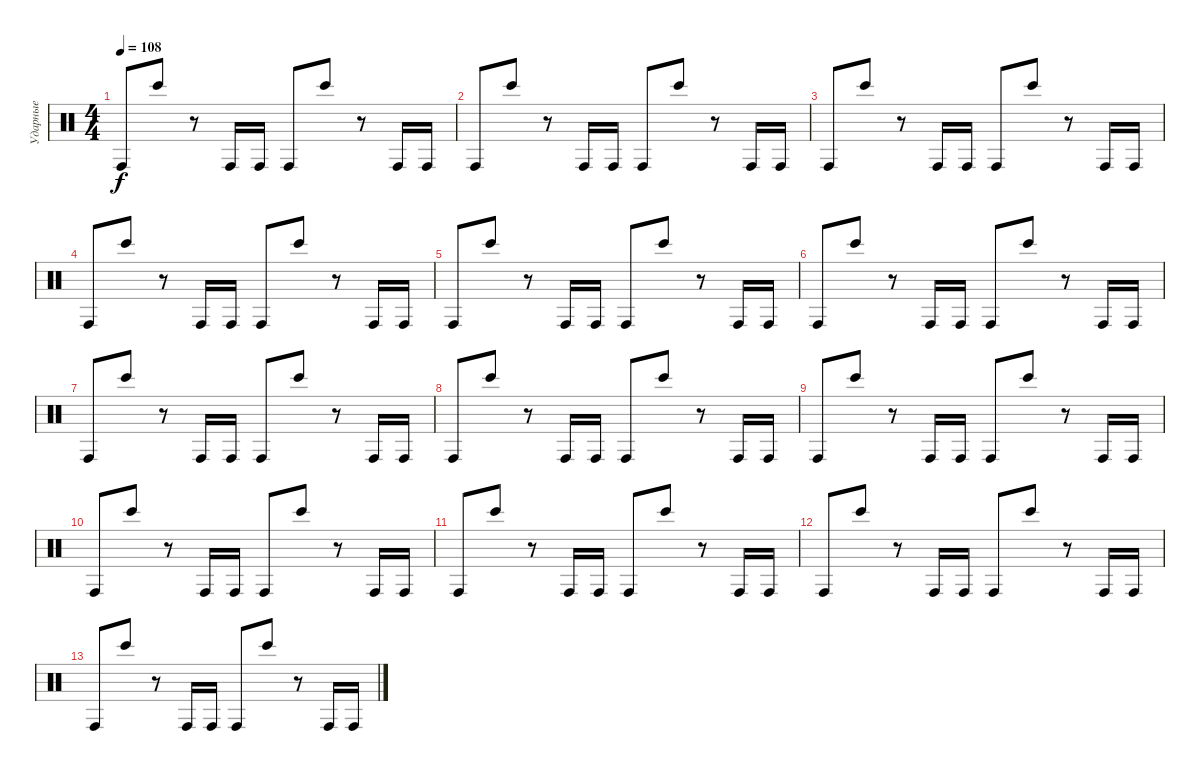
\track ("Ударные" "Ударные") {instrument percussion}
\staff {score}
\articulation defaults
\ts (4 4)
\tempo 108
\clef neutral
\ks c "Conga high (hit)".8{dy f} "Bongo High (hit)".8
r.8 "Conga high (hit)".16 "Conga high (hit)".16 "Conga high (hit)".8 "Bongo High (hit)".8 r.8 "Conga high (hit)".16 "Conga high (hit)".16 |
"Conga high (hit)".8 "Bongo High (hit)".8 r.8 "Conga high (hit)".16 "Conga high (hit)".16 "Conga high (hit)".8 "Bongo High (hit)".8 r.8 "Conga high (hit)".16 "Conga high (hit)".16 |
"Conga high (hit)".8 "Bongo High (hit)".8 r.8 "Conga high (hit)".16 "Conga high (hit)".16 "Conga high (hit)".8 "Bongo High (hit)".8 r.8 "Conga high (hit)".16 "Conga high (hit)".16 |
"Conga high (hit)".8 "Bongo High (hit)".8 r.8 "Conga high (hit)".16 "Conga high (hit)".16 "Conga high (hit)".8 "Bongo High (hit)".8 r.8 "Conga high (hit)".16 "Conga high (hit)".16 |
"Conga high (hit)".8 "Bongo High (hit)".8 r.8 "Conga high (hit)".16 "Conga high (hit)".16 "Conga high (hit)".8 "Bongo High (hit)".8 r.8 "Conga high (hit)".16 "Conga high (hit)".16 |
"Conga high (hit)".8 "Bongo High (hit)".8 r.8 "Conga high (hit)".16 "Conga high (hit)".16 "Conga high (hit)".8 "Bongo High (hit)".8 r.8 "Conga high (hit)".16 "Conga high (hit)".16 |
"Conga high (hit)".8 "Bongo High (hit)".8 r.8 "Conga high (hit)".16 "Conga high (hit)".16 "Conga high (hit)".8 "Bongo High (hit)".8 r.8 "Conga high (hit)".16 "Conga high (hit)".16 |
"Conga high (hit)".8 "Bongo High (hit)".8 r.8 "Conga high (hit)".16 "Conga high (hit)".16 "Conga high (hit)".8 "Bongo High (hit)".8 r.8 "Conga high (hit)".16 "Conga high (hit)".16 |
"Conga high (hit)".8 "Bongo High (hit)".8 r.8 "Conga high (hit)".16 "Conga high (hit)".16 "Conga high (hit)".8 "Bongo High (hit)".8 r.8 "Conga high (hit)".16 "Conga high (hit)".16 |
"Conga high (hit)".8 "Bongo High (hit)".8 r.8 "Conga high (hit)".16 "Conga high (hit)".16 "Conga high (hit)".8 "Bongo High (hit)".8 r.8 "Conga high (hit)".16 "Conga high (hit)".16 |
"Conga high (hit)".8 "Bongo High (hit)".8 r.8 "Conga high (hit)".16 "Conga high (hit)".16 "Conga high (hit)".8 "Bongo High (hit)".8 r.8 "Conga high (hit)".16 "Conga high (hit)".16 |
"Conga high (hit)".8 "Bongo High (hit)".8 r.8 "Conga high (hit)".16 "Conga high (hit)".16 "Conga high (hit)".8 "Bongo High (hit)".8 r.8 "Conga high (hit)".16 "Conga high (hit)".16 |
"Conga high (hit)".8 "Bongo High (hit)".8 r.8 "Conga high (hit)".16 "Conga high (hit)".16 "Conga high (hit)".8 "Bongo High (hit)".8 r.8 "Conga high (hit)".16 "Conga high (hit)".16
